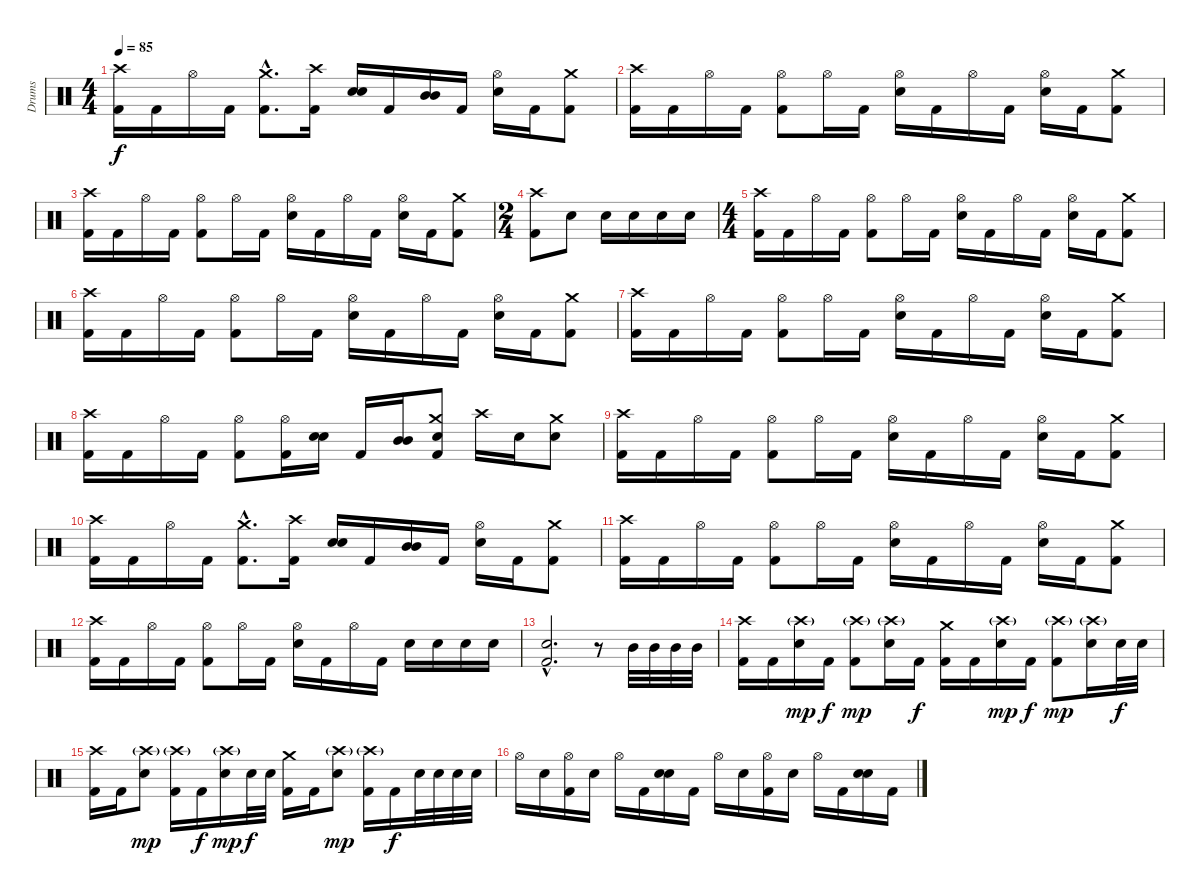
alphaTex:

\track ("Drums" "Drums") {instrument percussion}
\staff {score}
\articulation defaults
\ts (4 4)
\tempo 85
\clef neutral
\ks c
("Crash high (hit)" "Kick (hit) 2").16{dy f} "Kick (hit) 2".16 "Hi-Hat (open)".16 "Kick (hit) 2".16 ("Crash medium (hit)"{hac} "Kick (hit) 2"{hac}).8{d} ("Crash high (hit)" "Kick (hit) 2").16 ("Snare (hit) 2" "Snare (hit) 2").16{bd 240} "Kick (hit) 2".16 ("Mid Tom (hit)" "Mid Tom (hit)").16{bd 240} "Kick (hit) 2".16 ("Hi-Hat (open)" "Snare (hit) 2").16 "Kick (hit) 2".16 ("Crash medium (hit)" "Kick (hit) 2").8 |
("Crash high (hit)" "Kick (hit) 2").16 "Kick (hit) 2".16 "Hi-Hat (open)".16 "Kick (hit) 2".16 ("Hi-Hat (open)" "Kick (hit) 2").8 "Hi-Hat (open)".16 "Kick (hit) 2".16 ("Hi-Hat (open)" "Snare (hit) 2").16 "Kick (hit) 2".16 "Hi-Hat (open)".16 "Kick (hit) 2".16 ("Hi-Hat (open)" "Snare (hit) 2").16 "Kick (hit) 2".16 ("Crash medium (hit)" "Kick (hit) 2").8 |
("Crash high (hit)" "Kick (hit) 2").16 "Kick (hit) 2".16 "Hi-Hat (open)".16 "Kick (hit) 2".16 ("Hi-Hat (open)" "Kick (hit) 2").8 "Hi-Hat (open)".16 "Kick (hit) 2".16 ("Hi-Hat (open)" "Snare (hit) 2").16 "Kick (hit) 2".16 "Hi-Hat (open)".16 "Kick (hit) 2".16 ("Hi-Hat (open)" "Snare (hit) 2").16 "Kick (hit) 2".16 ("Crash medium (hit)" "Kick (hit) 2").8 |
\ts (2 4)
("Crash high (hit)" "Kick (hit) 2").8 "Snare (hit) 2".8 "Snare (hit) 2".16 "Snare (hit) 2".16 "Snare (hit) 2".16 "Snare (hit) 2".16 |
\ts (4 4)
("Crash high (hit)" "Kick (hit) 2").16 "Kick (hit) 2".16 "Hi-Hat (open)".16 "Kick (hit) 2".16 ("Hi-Hat (open)" "Kick (hit) 2").8 "Hi-Hat (open)".16 "Kick (hit) 2".16 ("Hi-Hat (open)" "Snare (hit) 2").16 "Kick (hit) 2".16 "Hi-Hat (open)".16 "Kick (hit) 2".16 ("Hi-Hat (open)" "Snare (hit) 2").16 "Kick (hit) 2".16 ("Crash medium (hit)" "Kick (hit) 2").8 |
("Crash high (hit)" "Kick (hit) 2").16 "Kick (hit) 2".16 "Hi-Hat (open)".16 "Kick (hit) 2".16 ("Hi-Hat (open)" "Kick (hit) 2").8 "Hi-Hat (open)".16 "Kick (hit) 2".16 ("Hi-Hat (open)" "Snare (hit) 2").16 "Kick (hit) 2".16 "Hi-Hat (open)".16 "Kick (hit) 2".16 ("Hi-Hat (open)" "Snare (hit) 2").16 "Kick (hit) 2".16 ("Crash medium (hit)" "Kick (hit) 2").8 |
("Crash high (hit)" "Kick (hit) 2").16 "Kick (hit) 2".16 "Hi-Hat (open)".16 "Kick (hit) 2".16 ("Hi-Hat (open)" "Kick (hit) 2").8 "Hi-Hat (open)".16 "Kick (hit) 2".16 ("Hi-Hat (open)" "Snare (hit) 2").16 "Kick (hit) 2".16 "Hi-Hat (open)".16 "Kick (hit) 2".16 ("Hi-Hat (open)" "Snare (hit) 2").16 "Kick (hit) 2".16 ("Crash medium (hit)" "Kick (hit) 2").8 |
("Crash high (hit)" "Kick (hit) 2").16 "Kick (hit) 2".16 "Hi-Hat (open)".16 "Kick (hit) 2".16 ("Hi-Hat (open)" "Kick (hit) 2").8 ("Hi-Hat (open)" "Kick (hit) 2").16 ("Snare (hit) 2" "Snare (hit) 2").16{bd 240} "Kick (hit) 2".16 ("Mid Tom (hit)" "Mid Tom (hit)").16{bd 240} ("Crash medium (hit)" "Snare (hit) 2" "Kick (hit) 2").8 "Crash high (hit)".16 "Snare (hit) 2".16 ("Crash medium (hit)" "Snare (hit) 2").8 |
("Crash high (hit)" "Kick (hit) 2").16 "Kick (hit) 2".16 "Hi-Hat (open)".16 "Kick (hit) 2".16 ("Hi-Hat (open)" "Kick (hit) 2").8 "Hi-Hat (open)".16 "Kick (hit) 2".16 ("Hi-Hat (open)" "Snare (hit) 2").16 "Kick (hit) 2".16 "Hi-Hat (open)".16 "Kick (hit) 2".16 ("Hi-Hat (open)" "Snare (hit) 2").16 "Kick (hit) 2".16 ("Crash medium (hit)" "Kick (hit) 2").8 |
("Crash high (hit)" "Kick (hit) 2").16 "Kick (hit) 2".16 "Hi-Hat (open)".16 "Kick (hit) 2".16 ("Crash medium (hit)"{hac} "Kick (hit) 2"{hac}).8{d} ("Crash high (hit)" "Kick (hit) 2").16 ("Snare (hit) 2" "Snare (hit) 2").16{bd 240} "Kick (hit) 2".16 ("Mid Tom (hit)" "Mid Tom (hit)").16{bd 240} "Kick (hit) 2".16 ("Hi-Hat (open)" "Snare (hit) 2").16 "Kick (hit) 2".16 ("Crash medium (hit)" "Kick (hit) 2").8 |
("Crash high (hit)" "Kick (hit) 2").16 "Kick (hit) 2".16 "Hi-Hat (open)".16 "Kick (hit) 2".16 ("Hi-Hat (open)" "Kick (hit) 2").8 "Hi-Hat (open)".16 "Kick (hit) 2".16 ("Hi-Hat (open)" "Snare (hit) 2").16 "Kick (hit) 2".16 "Hi-Hat (open)".16 "Kick (hit) 2".16 ("Hi-Hat (open)" "Snare (hit) 2").16 "Kick (hit) 2".16 ("Crash medium (hit)" "Kick (hit) 2").8 |
("Crash high (hit)" "Kick (hit) 2").16 "Kick (hit) 2".16 "Hi-Hat (open)".16 "Kick (hit) 2".16 ("Hi-Hat (open)" "Kick (hit) 2").8 "Hi-Hat (open)".16 "Kick (hit) 2".16 ("Hi-Hat (open)" "Snare (hit) 2").16 "Kick (hit) 2".16 "Hi-Hat (open)".16 "Kick (hit) 2".16 "Snare (hit) 2".16 "Snare (hit) 2".16 "Snare (hit) 2".16 "Snare (hit) 2".16 |
("Snare (hit) 2"{hac} "Kick (hit) 2"{hac}).2{d} r.8 "Mid Tom (hit)".32 "Mid Tom (hit)".32 "Mid Tom (hit)".32 "Mid Tom (hit)".32 |
("Crash high (hit)" "Kick (hit) 2").16 "Kick (hit) 2".16 ("Crash high (hit)"{g} "Snare (hit) 2").16{dy mp} "Kick (hit) 2".16{dy f} ("Crash high (hit)"{g} "Kick (hit) 2").8{dy mp} ("Crash high (hit)"{g} "Snare (hit) 2").16 "Kick (hit) 2".16{dy f} ("Crash medium (hit)" "Kick (hit) 2").16 "Kick (hit) 2".16 ("Crash high (hit)"{g} "Snare (hit) 2").16{dy mp} "Kick (hit) 2".16{dy f} ("Crash high (hit)"{g} "Kick (hit) 2").8{dy mp} ("Crash high (hit)"{g} "Snare (hit) 2").16 "Snare (hit) 2".32{dy f} "Snare (hit) 2".32 |
("Crash high (hit)" "Kick (hit) 2").16 "Kick (hit) 2".16 ("Crash high (hit)"{g} "Snare (hit) 2").8{dy mp} ("Crash high (hit)"{g} "Kick (hit) 2").16 "Kick (hit) 2".16{dy f} ("Crash high (hit)"{g} "Snare (hit) 2").16{dy mp} "Snare (hit) 2".32{dy f} "Snare (hit) 2".32 ("Crash medium (hit)" "Kick (hit) 2").16 "Kick (hit) 2".16 ("Crash high (hit)"{g} "Snare (hit) 2").8{dy mp} ("Crash high (hit)"{g} "Kick (hit) 2").16 "Kick (hit) 2".16{dy f} "Snare (hit) 2".32 "Snare (hit) 2".32 "Snare (hit) 2".32 "Snare (hit) 2".32 |
"Hi-Hat (open)".16 "Snare (hit) 2".16 ("Hi-Hat (open)" "Kick (hit) 2").16 "Snare (hit) 2".16 "Hi-Hat (open)".16 "Kick (hit) 2".16 ("Snare (hit) 2" "Snare (hit) 2").16{bd 240} "Kick (hit) 2".16 "Hi-Hat (open)".16 "Snare (hit) 2".16 ("Hi-Hat (open)" "Kick (hit) 2").16 "Snare (hit) 2".16 "Hi-Hat (open)".16 "Kick (hit) 2".16 ("Snare (hit) 2" "Snare (hit) 2").16{bd 240} "Kick (hit) 2".16
